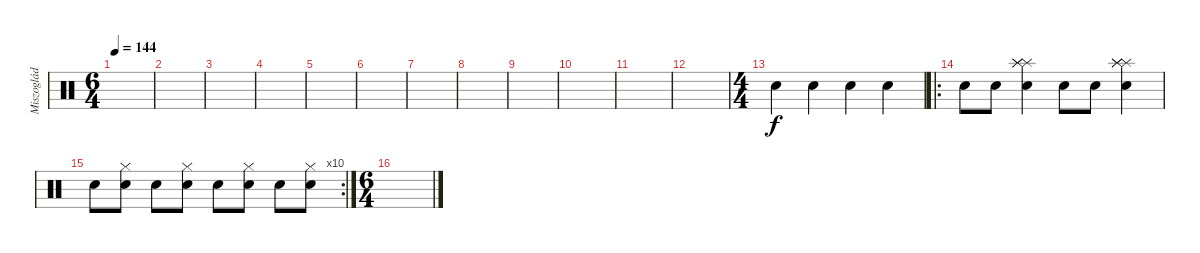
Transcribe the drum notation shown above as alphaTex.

\track ("Miszoglád Henrik - Dob" "Miszoglád ") {instrument percussion}
\staff {score}
\articulation defaults
\ts (6 4)
\tempo 144
\clef neutral
\ks c
|
|
|
|
|
|
|
|
|
|
|
|
\ts (4 4)
"Electric Snare (hit)".4 "Electric Snare (hit)".4 "Electric Snare (hit)".4 "Electric Snare (hit)".4 |
\ro "Electric Snare (hit)".8 "Electric Snare (hit)".8
("Splash (hit)" "Splash (hit)" "Splash (hit)" "Electric Snare (hit)").4 "Electric Snare (hit)".8 "Electric Snare (hit)".8 ("Splash (hit)" "Splash (hit)" "Splash (hit)" "Electric Snare (hit)").4 |
\rc 10 "Electric Snare (hit)".8
("Hi-Hat (closed)" "Electric Snare (hit)").8 "Electric Snare (hit)".8 ("Hi-Hat (closed)" "Electric Snare (hit)").8 "Electric Snare (hit)".8 ("Hi-Hat (closed)" "Electric Snare (hit)").8 "Electric Snare (hit)".8 ("Hi-Hat (closed)" "Electric Snare (hit)").8 |
\ts (6 4)
